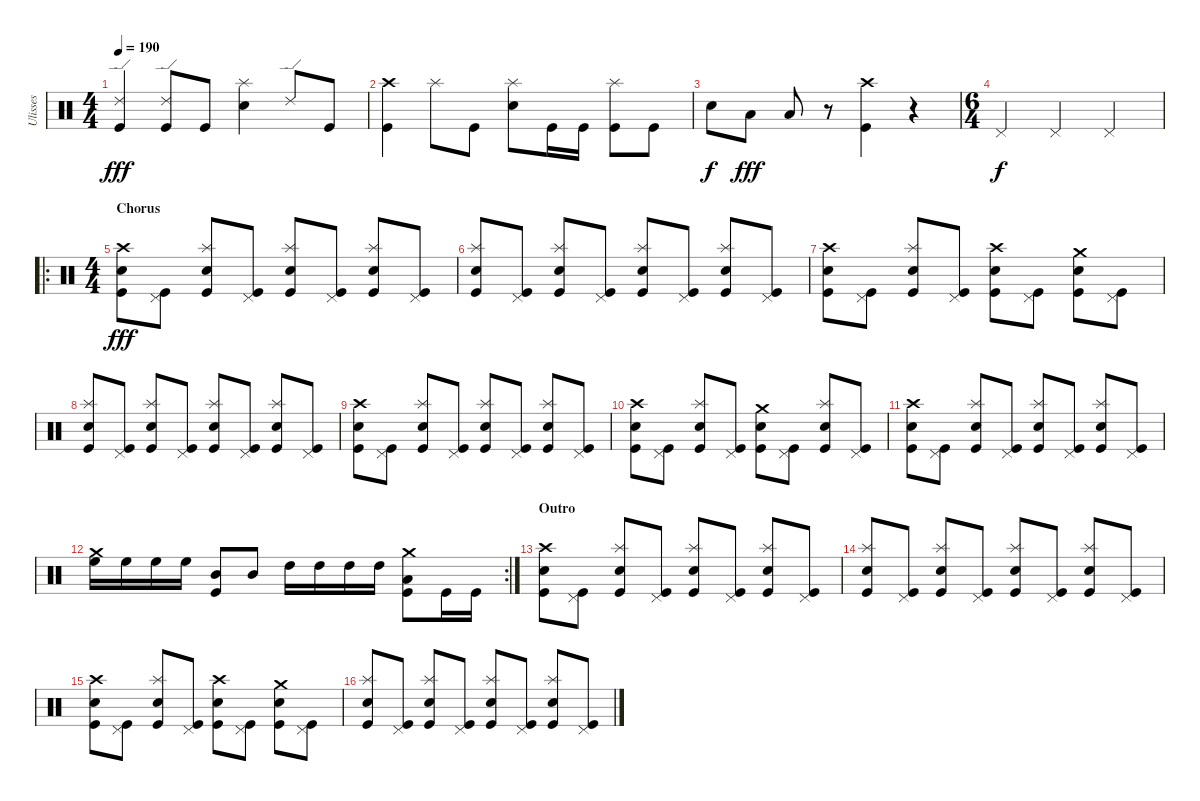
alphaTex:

\track ("Ulisses" "Ulisses") {instrument percussion}
\staff {score}
\articulation defaults
\ts (4 4)
\tempo 190
\clef neutral
\ks c
("Ride (edge) 2" "Kick (hit)").4{dy fff} ("Ride (edge) 2" "Kick (hit)").8 "Kick (hit)".8 ("Splash (hit)" "Electric Snare (hit)").4 "Ride (edge) 2".8 "Kick (hit)".8 |
("Crash high (hit)" "Kick (hit)").4 "Splash (hit)".8 "Kick (hit)".8 ("Splash (hit)" "Electric Snare (hit)").8 "Kick (hit)".16 "Kick (hit)".16 ("Splash (hit)" "Kick (hit)").8 "Kick (hit)".8 |
"Electric Snare (hit)".8{dy f} "Low Tom (hit)".8{dy fff} "Low Tom (hit)".8 r.8 ("Crash high (hit)" "Kick (hit)").4 r.4{volume 0} |
\ts (6 4)
"Pedal Hi-Hat (hit)".2{dy f volume 16} "Pedal Hi-Hat (hit)".2 "Pedal Hi-Hat (hit)".2 |
\ro
\ts (4 4)
\section ("" "Chorus")
("Crash high (hit)" "Electric Snare (hit)" "Kick (hit)").8{dy fff} ("Pedal Hi-Hat (hit)" "Kick (hit)").8 ("Splash (hit)" "Electric Snare (hit)" "Kick (hit)").8 ("Pedal Hi-Hat (hit)" "Kick (hit)").8 ("Splash (hit)" "Electric Snare (hit)" "Kick (hit)").8 ("Pedal Hi-Hat (hit)" "Kick (hit)").8 ("Splash (hit)" "Electric Snare (hit)" "Kick (hit)").8 ("Pedal Hi-Hat (hit)" "Kick (hit)").8 |
("Splash (hit)" "Electric Snare (hit)" "Kick (hit)").8 ("Pedal Hi-Hat (hit)" "Kick (hit)").8 ("Splash (hit)" "Electric Snare (hit)" "Kick (hit)").8 ("Pedal Hi-Hat (hit)" "Kick (hit)").8 ("Splash (hit)" "Electric Snare (hit)" "Kick (hit)").8 ("Pedal Hi-Hat (hit)" "Kick (hit)").8 ("Splash (hit)" "Electric Snare (hit)" "Kick (hit)").8 ("Pedal Hi-Hat (hit)" "Kick (hit)").8 |
("Crash high (hit)" "Electric Snare (hit)" "Kick (hit)").8 ("Pedal Hi-Hat (hit)" "Kick (hit)").8 ("Splash (hit)" "Electric Snare (hit)" "Kick (hit)").8 ("Pedal Hi-Hat (hit)" "Kick (hit)").8 ("Crash high (hit)" "Electric Snare (hit)" "Kick (hit)").8 ("Pedal Hi-Hat (hit)" "Kick (hit)").8 ("Crash medium (hit)" "Electric Snare (hit)" "Kick (hit)").8 ("Pedal Hi-Hat (hit)" "Kick (hit)").8 |
("Splash (hit)" "Electric Snare (hit)" "Kick (hit)").8 ("Pedal Hi-Hat (hit)" "Kick (hit)").8 ("Splash (hit)" "Electric Snare (hit)" "Kick (hit)").8 ("Pedal Hi-Hat (hit)" "Kick (hit)").8 ("Splash (hit)" "Electric Snare (hit)" "Kick (hit)").8 ("Pedal Hi-Hat (hit)" "Kick (hit)").8 ("Splash (hit)" "Electric Snare (hit)" "Kick (hit)").8 ("Pedal Hi-Hat (hit)" "Kick (hit)").8 |
("Crash high (hit)" "Electric Snare (hit)" "Kick (hit)").8 ("Pedal Hi-Hat (hit)" "Kick (hit)").8 ("Splash (hit)" "Electric Snare (hit)" "Kick (hit)").8 ("Pedal Hi-Hat (hit)" "Kick (hit)").8 ("Splash (hit)" "Electric Snare (hit)" "Kick (hit)").8 ("Pedal Hi-Hat (hit)" "Kick (hit)").8 ("Splash (hit)" "Electric Snare (hit)" "Kick (hit)").8 ("Pedal Hi-Hat (hit)" "Kick (hit)").8 |
("Crash high (hit)" "Electric Snare (hit)" "Kick (hit)").8 ("Pedal Hi-Hat (hit)" "Kick (hit)").8 ("Splash (hit)" "Electric Snare (hit)" "Kick (hit)").8 ("Pedal Hi-Hat (hit)" "Kick (hit)").8 ("Crash medium (hit)" "Electric Snare (hit)" "Kick (hit)").8 ("Pedal Hi-Hat (hit)" "Kick (hit)").8 ("Splash (hit)" "Electric Snare (hit)" "Kick (hit)").8 ("Pedal Hi-Hat (hit)" "Kick (hit)").8 |
("Crash high (hit)" "Electric Snare (hit)" "Kick (hit)").8 ("Pedal Hi-Hat (hit)" "Kick (hit)").8 ("Splash (hit)" "Electric Snare (hit)" "Kick (hit)").8 ("Pedal Hi-Hat (hit)" "Kick (hit)").8 ("Splash (hit)" "Electric Snare (hit)" "Kick (hit)").8 ("Pedal Hi-Hat (hit)" "Kick (hit)").8 ("Splash (hit)" "Electric Snare (hit)" "Kick (hit)").8 ("Pedal Hi-Hat (hit)" "Kick (hit)").8 |
\rc 2
("Crash medium (hit)" "High Floor Tom (hit)").16 "High Floor Tom (hit)".16 "High Floor Tom (hit)".16 "High Floor Tom (hit)".16 ("Mid Tom (hit)" "Kick (hit)").8 "Mid Tom (hit)".8 "High Tom (hit)".16 "High Tom (hit)".16 "High Tom (hit)".16 "High Tom (hit)".16 ("Crash medium (hit)" "Low Tom (hit)" "Kick (hit)").8 "Kick (hit)".16 "Kick (hit)".16 |
\section ("" "Outro")
("Crash high (hit)" "Electric Snare (hit)" "Kick (hit)").8 ("Pedal Hi-Hat (hit)" "Kick (hit)").8 ("Splash (hit)" "Electric Snare (hit)" "Kick (hit)").8 ("Pedal Hi-Hat (hit)" "Kick (hit)").8 ("Splash (hit)" "Electric Snare (hit)" "Kick (hit)").8 ("Pedal Hi-Hat (hit)" "Kick (hit)").8 ("Splash (hit)" "Electric Snare (hit)" "Kick (hit)").8 ("Pedal Hi-Hat (hit)" "Kick (hit)").8 |
("Splash (hit)" "Electric Snare (hit)" "Kick (hit)").8 ("Pedal Hi-Hat (hit)" "Kick (hit)").8 ("Splash (hit)" "Electric Snare (hit)" "Kick (hit)").8 ("Pedal Hi-Hat (hit)" "Kick (hit)").8 ("Splash (hit)" "Electric Snare (hit)" "Kick (hit)").8 ("Pedal Hi-Hat (hit)" "Kick (hit)").8 ("Splash (hit)" "Electric Snare (hit)" "Kick (hit)").8 ("Pedal Hi-Hat (hit)" "Kick (hit)").8 |
("Crash high (hit)" "Electric Snare (hit)" "Kick (hit)").8 ("Pedal Hi-Hat (hit)" "Kick (hit)").8 ("Splash (hit)" "Electric Snare (hit)" "Kick (hit)").8 ("Pedal Hi-Hat (hit)" "Kick (hit)").8 ("Crash high (hit)" "Electric Snare (hit)" "Kick (hit)").8 ("Pedal Hi-Hat (hit)" "Kick (hit)").8 ("Crash medium (hit)" "Electric Snare (hit)" "Kick (hit)").8 ("Pedal Hi-Hat (hit)" "Kick (hit)").8 |
("Splash (hit)" "Electric Snare (hit)" "Kick (hit)").8 ("Pedal Hi-Hat (hit)" "Kick (hit)").8 ("Splash (hit)" "Electric Snare (hit)" "Kick (hit)").8 ("Pedal Hi-Hat (hit)" "Kick (hit)").8 ("Splash (hit)" "Electric Snare (hit)" "Kick (hit)").8 ("Pedal Hi-Hat (hit)" "Kick (hit)").8 ("Splash (hit)" "Electric Snare (hit)" "Kick (hit)").8 ("Pedal Hi-Hat (hit)" "Kick (hit)").8
